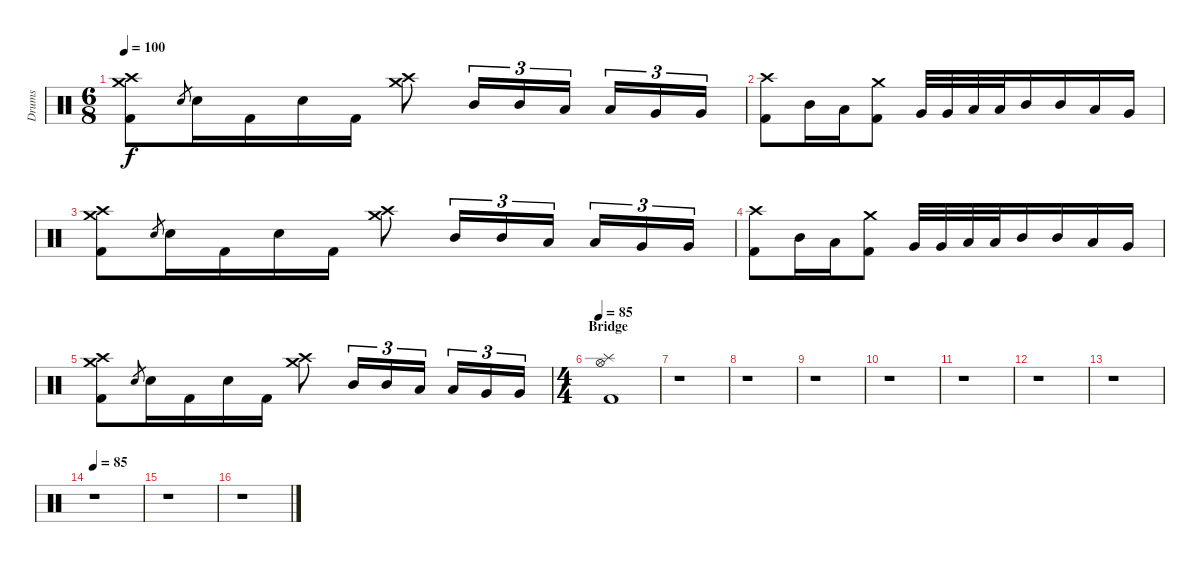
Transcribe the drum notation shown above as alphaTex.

\track ("Drums" "Drums") {instrument percussion}
\staff {score}
\articulation defaults
\ts (6 8)
\tempo 100
\clef neutral
\ks c
("Crash high (hit)" "Crash medium (hit)" "Kick (hit) 2").8{dy f} "Electric Snare (hit)".8{gr} "Electric Snare (hit)".16 "Kick (hit) 2".16 "Electric Snare (hit)".16 "Kick (hit) 2".16 ("Crash high (hit)" "Crash medium (hit)").8 "Mid Tom (hit)".16{tu (3 2)} "Mid Tom (hit)".16{tu (3 2)} "Low Tom (hit)".16{tu (3 2)} "Low Tom (hit)".16{tu (3 2)} "Very Low Tom (hit)".16{tu (3 2)} "Very Low Tom (hit)".16{tu (3 2)} |
("Crash high (hit)" "Kick (hit) 2").8 "Mid Tom (hit)".16 "Low Tom (hit)".16 ("Crash medium (hit)" "Kick (hit) 2").8 "Very Low Tom (hit)".32 "Very Low Tom (hit)".32 "Low Tom (hit)".32 "Low Tom (hit)".32 "Mid Tom (hit)".16 "Mid Tom (hit)".16 "Low Tom (hit)".16 "Very Low Tom (hit)".16 |
("Crash high (hit)" "Crash medium (hit)" "Kick (hit) 2").8 "Electric Snare (hit)".8{gr} "Electric Snare (hit)".16 "Kick (hit) 2".16 "Electric Snare (hit)".16 "Kick (hit) 2".16 ("Crash high (hit)" "Crash medium (hit)").8 "Mid Tom (hit)".16{tu (3 2)} "Mid Tom (hit)".16{tu (3 2)} "Low Tom (hit)".16{tu (3 2)} "Low Tom (hit)".16{tu (3 2)} "Very Low Tom (hit)".16{tu (3 2)} "Very Low Tom (hit)".16{tu (3 2)} |
("Crash high (hit)" "Kick (hit) 2").8 "Mid Tom (hit)".16 "Low Tom (hit)".16 ("Crash medium (hit)" "Kick (hit) 2").8 "Very Low Tom (hit)".32 "Very Low Tom (hit)".32 "Low Tom (hit)".32 "Low Tom (hit)".32 "Mid Tom (hit)".16 "Mid Tom (hit)".16 "Low Tom (hit)".16 "Very Low Tom (hit)".16 |
("Crash high (hit)" "Crash medium (hit)" "Kick (hit) 2").8 "Electric Snare (hit)".8{gr} "Electric Snare (hit)".16 "Kick (hit) 2".16 "Electric Snare (hit)".16 "Kick (hit) 2".16 ("Crash high (hit)" "Crash medium (hit)").8 "Mid Tom (hit)".16{tu (3 2)} "Mid Tom (hit)".16{tu (3 2)} "Low Tom (hit)".16{tu (3 2)} "Low Tom (hit)".16{tu (3 2)} "Very Low Tom (hit)".16{tu (3 2)} "Very Low Tom (hit)".16{tu (3 2)} |
\ts (4 4)
\section ("" "Bridge")
\tempo 85
("Splash (hit)" "Hi-Hat (open)" "Kick (hit) 2").1 |
r.1 |
r.1 |
r.1 |
r.1 |
r.1 |
r.1 |
r.1 |
\tempo 85
r.1 |
r.1 |
r.1
